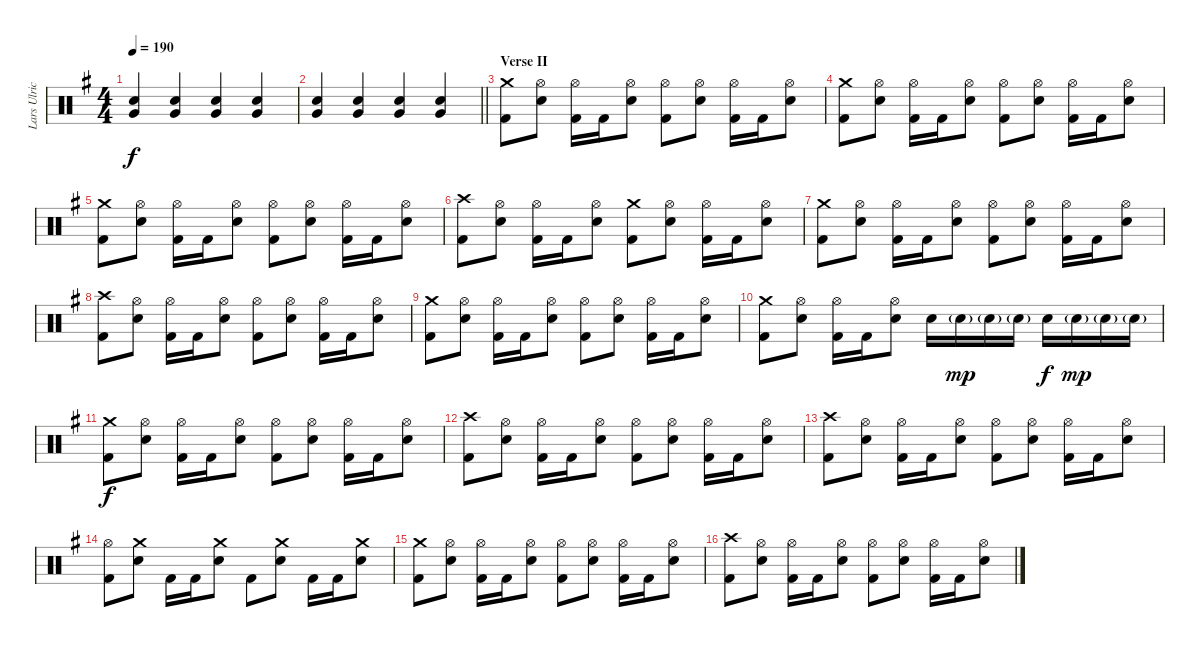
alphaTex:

\track ("Lars Ulrich - Drums" "Lars Ulric") {instrument percussion}
\staff {score}
\articulation defaults
\ts (4 4)
\tempo 190
\clef neutral
\ks eminor
("Very Low Tom (hit)" "Electric Snare (hit)").4{dy f} ("Very Low Tom (hit)" "Electric Snare (hit)").4 ("Very Low Tom (hit)" "Electric Snare (hit)").4 ("Very Low Tom (hit)" "Electric Snare (hit)").4 |
\barLineRight lightlight
("Very Low Tom (hit)" "Electric Snare (hit)").4 ("Very Low Tom (hit)" "Electric Snare (hit)").4 ("Very Low Tom (hit)" "Electric Snare (hit)").4 ("Very Low Tom (hit)" "Electric Snare (hit)").4 |
\section ("" "Verse II")
("Crash medium (hit)" "Kick (hit) 2").8 ("Hi-Hat (open)" "Snare (hit) 2").8 ("Hi-Hat (open)" "Kick (hit) 2").16 "Kick (hit) 2".16 ("Hi-Hat (open)" "Snare (hit) 2").8 ("Hi-Hat (open)" "Kick (hit) 2").8 ("Hi-Hat (open)" "Snare (hit) 2").8 ("Hi-Hat (open)" "Kick (hit) 2").16 "Kick (hit) 2".16 ("Hi-Hat (open)" "Snare (hit) 2").8 |
("Crash medium (hit)" "Kick (hit) 2").8 ("Hi-Hat (open)" "Snare (hit) 2").8 ("Hi-Hat (open)" "Kick (hit) 2").16 "Kick (hit) 2".16 ("Hi-Hat (open)" "Snare (hit) 2").8 ("Hi-Hat (open)" "Kick (hit) 2").8 ("Hi-Hat (open)" "Snare (hit) 2").8 ("Hi-Hat (open)" "Kick (hit) 2").16 "Kick (hit) 2".16 ("Hi-Hat (open)" "Snare (hit) 2").8 |
("Crash medium (hit)" "Kick (hit) 2").8 ("Hi-Hat (open)" "Snare (hit) 2").8 ("Hi-Hat (open)" "Kick (hit) 2").16 "Kick (hit) 2".16 ("Hi-Hat (open)" "Snare (hit) 2").8 ("Hi-Hat (open)" "Kick (hit) 2").8 ("Hi-Hat (open)" "Snare (hit) 2").8 ("Hi-Hat (open)" "Kick (hit) 2").16 "Kick (hit) 2".16 ("Hi-Hat (open)" "Snare (hit) 2").8 |
("Crash high (hit)" "Kick (hit) 2").8 ("Hi-Hat (open)" "Snare (hit) 2").8 ("Hi-Hat (open)" "Kick (hit) 2").16 "Kick (hit) 2".16 ("Hi-Hat (open)" "Snare (hit) 2").8 ("Crash medium (hit)" "Kick (hit) 2").8 ("Hi-Hat (open)" "Snare (hit) 2").8 ("Hi-Hat (open)" "Kick (hit) 2").16 "Kick (hit) 2".16 ("Hi-Hat (open)" "Snare (hit) 2").8 |
("Crash medium (hit)" "Kick (hit) 2").8 ("Hi-Hat (open)" "Snare (hit) 2").8 ("Hi-Hat (open)" "Kick (hit) 2").16 "Kick (hit) 2".16 ("Hi-Hat (open)" "Snare (hit) 2").8 ("Hi-Hat (open)" "Kick (hit) 2").8 ("Hi-Hat (open)" "Snare (hit) 2").8 ("Hi-Hat (open)" "Kick (hit) 2").16 "Kick (hit) 2".16 ("Hi-Hat (open)" "Snare (hit) 2").8 |
("Crash high (hit)" "Kick (hit) 2").8 ("Hi-Hat (open)" "Snare (hit) 2").8 ("Hi-Hat (open)" "Kick (hit) 2").16 "Kick (hit) 2".16 ("Hi-Hat (open)" "Snare (hit) 2").8 ("Hi-Hat (open)" "Kick (hit) 2").8 ("Hi-Hat (open)" "Snare (hit) 2").8 ("Hi-Hat (open)" "Kick (hit) 2").16 "Kick (hit) 2".16 ("Hi-Hat (open)" "Snare (hit) 2").8 |
("Crash medium (hit)" "Kick (hit) 2").8 ("Hi-Hat (open)" "Snare (hit) 2").8 ("Hi-Hat (open)" "Kick (hit) 2").16 "Kick (hit) 2".16 ("Hi-Hat (open)" "Snare (hit) 2").8 ("Hi-Hat (open)" "Kick (hit) 2").8 ("Hi-Hat (open)" "Snare (hit) 2").8 ("Hi-Hat (open)" "Kick (hit) 2").16 "Kick (hit) 2".16 ("Hi-Hat (open)" "Snare (hit) 2").8 |
("Crash medium (hit)" "Kick (hit) 2").8 ("Hi-Hat (open)" "Snare (hit) 2").8 ("Hi-Hat (open)" "Kick (hit) 2").16 "Kick (hit) 2".16 ("Hi-Hat (open)" "Snare (hit) 2").8 "Snare (hit) 2".16 "Snare (hit) 2"{g}.16{dy mp} "Snare (hit) 2"{g}.16 "Snare (hit) 2"{g}.16 "Snare (hit) 2".16{dy f} "Snare (hit) 2"{g}.16{dy mp} "Snare (hit) 2"{g}.16 "Snare (hit) 2"{g}.16 |
("Crash medium (hit)" "Kick (hit) 2").8{dy f} ("Hi-Hat (open)" "Snare (hit) 2").8 ("Hi-Hat (open)" "Kick (hit) 2").16 "Kick (hit) 2".16 ("Hi-Hat (open)" "Snare (hit) 2").8 ("Hi-Hat (open)" "Kick (hit) 2").8 ("Hi-Hat (open)" "Snare (hit) 2").8 ("Hi-Hat (open)" "Kick (hit) 2").16 "Kick (hit) 2".16 ("Hi-Hat (open)" "Snare (hit) 2").8 |
("Crash high (hit)" "Kick (hit) 2").8 ("Hi-Hat (open)" "Snare (hit) 2").8 ("Hi-Hat (open)" "Kick (hit) 2").16 "Kick (hit) 2".16 ("Hi-Hat (open)" "Snare (hit) 2").8 ("Hi-Hat (open)" "Kick (hit) 2").8 ("Hi-Hat (open)" "Snare (hit) 2").8 ("Hi-Hat (open)" "Kick (hit) 2").16 "Kick (hit) 2".16 ("Hi-Hat (open)" "Snare (hit) 2").8 |
("Crash high (hit)" "Kick (hit) 2").8 ("Hi-Hat (open)" "Snare (hit) 2").8 ("Hi-Hat (open)" "Kick (hit) 2").16 "Kick (hit) 2".16 ("Hi-Hat (open)" "Snare (hit) 2").8 ("Hi-Hat (open)" "Kick (hit) 2").8 ("Hi-Hat (open)" "Snare (hit) 2").8 ("Hi-Hat (open)" "Kick (hit) 2").16 "Kick (hit) 2".16 ("Hi-Hat (open)" "Snare (hit) 2").8 |
("Hi-Hat (open)" "Kick (hit) 2").8 ("Crash medium (hit)" "Snare (hit) 2").8 "Kick (hit) 2".16 "Kick (hit) 2".16 ("Crash medium (hit)" "Snare (hit) 2").8 "Kick (hit) 2".8 ("Crash medium (hit)" "Snare (hit) 2").8 "Kick (hit) 2".16 "Kick (hit) 2".16 ("Crash medium (hit)" "Snare (hit) 2").8 |
("Crash medium (hit)" "Kick (hit) 2").8 ("Hi-Hat (open)" "Snare (hit) 2").8 ("Hi-Hat (open)" "Kick (hit) 2").16 "Kick (hit) 2".16 ("Hi-Hat (open)" "Snare (hit) 2").8 ("Hi-Hat (open)" "Kick (hit) 2").8 ("Hi-Hat (open)" "Snare (hit) 2").8 ("Hi-Hat (open)" "Kick (hit) 2").16 "Kick (hit) 2".16 ("Hi-Hat (open)" "Snare (hit) 2").8 |
("Crash high (hit)" "Kick (hit) 2").8 ("Hi-Hat (open)" "Snare (hit) 2").8 ("Hi-Hat (open)" "Kick (hit) 2").16 "Kick (hit) 2".16 ("Hi-Hat (open)" "Snare (hit) 2").8 ("Hi-Hat (open)" "Kick (hit) 2").8 ("Hi-Hat (open)" "Snare (hit) 2").8 ("Hi-Hat (open)" "Kick (hit) 2").16 "Kick (hit) 2".16 ("Hi-Hat (open)" "Snare (hit) 2").8
